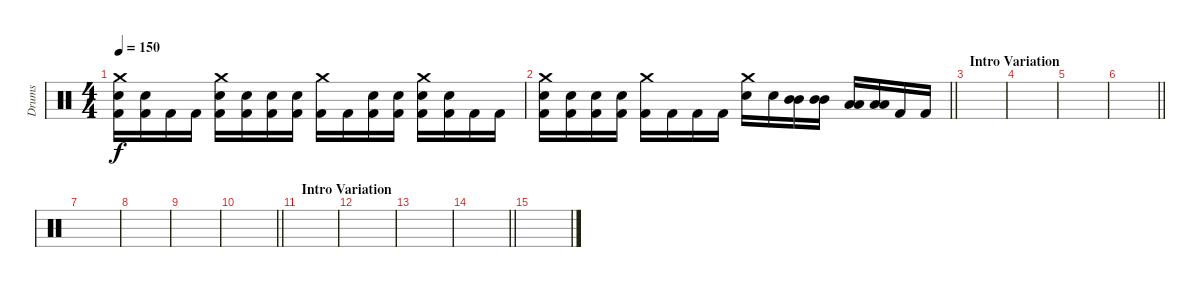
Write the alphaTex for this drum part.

\track ("Drums" "Drums") {instrument percussion}
\staff {score}
\articulation defaults
\ts (4 4)
\tempo 150
\clef neutral
\ks c
("Crash medium (hit)" "Electric Snare (hit)" "Kick (hit) 2").16{dy f} ("Electric Snare (hit)" "Kick (hit) 2").16 "Kick (hit) 2".16 "Kick (hit) 2".16 ("Crash medium (hit)" "Electric Snare (hit)" "Kick (hit) 2").16 ("Electric Snare (hit)" "Kick (hit) 2").16 ("Electric Snare (hit)" "Kick (hit) 2").16 ("Electric Snare (hit)" "Kick (hit) 2").16 ("Crash medium (hit)" "Kick (hit) 2").16 "Kick (hit) 2".16 ("Electric Snare (hit)" "Kick (hit) 2").16 ("Electric Snare (hit)" "Kick (hit) 2").16 ("Crash medium (hit)" "Electric Snare (hit)" "Kick (hit) 2").16 ("Electric Snare (hit)" "Kick (hit) 2").16 "Kick (hit) 2".16 "Kick (hit) 2".16 |
\barLineRight lightlight
("Crash medium (hit)" "Electric Snare (hit)" "Kick (hit) 2").16 ("Electric Snare (hit)" "Kick (hit) 2").16 ("Electric Snare (hit)" "Kick (hit) 2").16 ("Electric Snare (hit)" "Kick (hit) 2").16 ("Crash medium (hit)" "Kick (hit) 2").16 "Kick (hit) 2".16 "Kick (hit) 2".16 "Kick (hit) 2".16 ("Crash medium (hit)" "Electric Snare (hit)").16 "Electric Snare (hit)".16 ("Mid Tom (hit)" "Mid Tom (hit)").16 ("Mid Tom (hit)" "Mid Tom (hit)").16 ("Low Tom (hit)" "Low Tom (hit)").16 ("Low Tom (hit)" "Low Tom (hit)").16 "Kick (hit) 2".16 "Kick (hit) 2".16 |
\section ("" "Intro Variation")
|
|
|
\barLineRight lightlight
|
\section ("" "")
|
|
|
\barLineRight lightlight
|
\section ("" "Intro Variation")
|
|
|
\barLineRight lightlight
|
\section ("" "")
